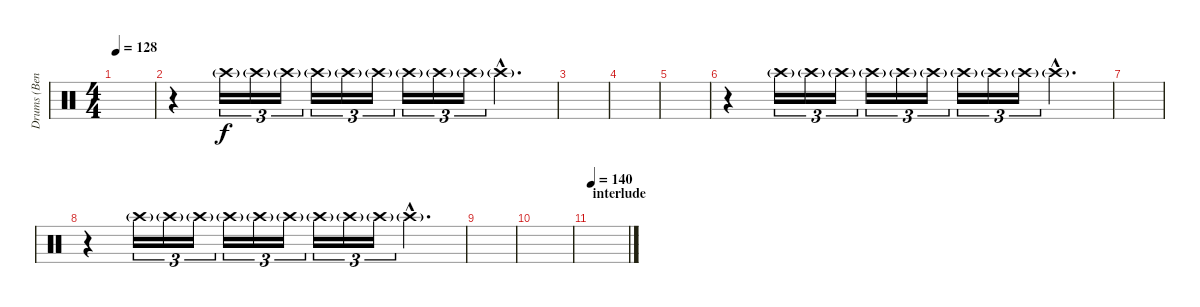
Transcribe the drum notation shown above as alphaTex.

\track ("Drums (Bengerg)" "Drums (Ben") {instrument percussion}
\staff {score}
\articulation defaults
\ts (4 4)
\tempo 128
\clef neutral
\ks c
|
r.4{volume 9} "Crash high (hit)"{g}.16{tu (3 2)} "Crash high (hit)"{g}.16{tu (3 2)} "Crash high (hit)"{g}.16{tu (3 2)} "Crash high (hit)"{g}.16{tu (3 2)} "Crash high (hit)"{g}.16{tu (3 2)} "Crash high (hit)"{g}.16{tu (3 2)} "Crash high (hit)"{g}.16{tu (3 2)} "Crash high (hit)"{g}.16{tu (3 2)} "Crash high (hit)"{g}.16{tu (3 2)} "Crash high (hit)"{g hac}.4{d} |
|
|
|
r.4{volume 9} "Crash high (hit)"{g}.16{tu (3 2)} "Crash high (hit)"{g}.16{tu (3 2)} "Crash high (hit)"{g}.16{tu (3 2)} "Crash high (hit)"{g}.16{tu (3 2)} "Crash high (hit)"{g}.16{tu (3 2)} "Crash high (hit)"{g}.16{tu (3 2)} "Crash high (hit)"{g}.16{tu (3 2)} "Crash high (hit)"{g}.16{tu (3 2)} "Crash high (hit)"{g}.16{tu (3 2)} "Crash high (hit)"{g hac}.4{d} |
|
r.4{volume 9} "Crash high (hit)"{g}.16{tu (3 2)} "Crash high (hit)"{g}.16{tu (3 2)} "Crash high (hit)"{g}.16{tu (3 2)} "Crash high (hit)"{g}.16{tu (3 2)} "Crash high (hit)"{g}.16{tu (3 2)} "Crash high (hit)"{g}.16{tu (3 2)} "Crash high (hit)"{g}.16{tu (3 2)} "Crash high (hit)"{g}.16{tu (3 2)} "Crash high (hit)"{g}.16{tu (3 2)} "Crash high (hit)"{g hac}.4{d} |
|
|
\section ("" "interlude")
\tempo 140
